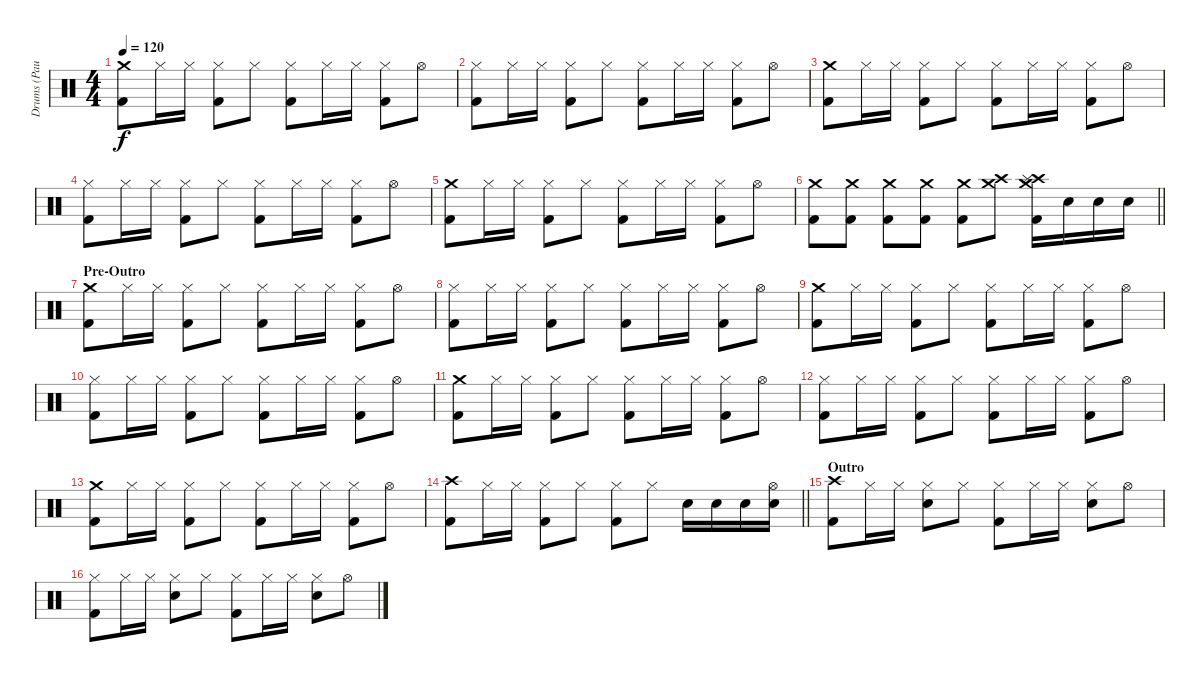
\track ("Drums (Paul Thompson)" "Drums (Pau") {instrument percussion}
\staff {score}
\articulation defaults
\ts (4 4)
\tempo 120
\clef neutral
\ks c
("Crash medium (hit)" "Kick (hit) 2").8{dy f} "Hi-Hat (closed)".16 "Hi-Hat (closed)".16 ("Hi-Hat (closed)" "Kick (hit) 2").8 "Hi-Hat (closed)".8 ("Hi-Hat (closed)" "Kick (hit) 2").8 "Hi-Hat (closed)".16 "Hi-Hat (closed)".16 ("Hi-Hat (closed)" "Kick (hit) 2").8 "Hi-Hat (open)".8 |
("Hi-Hat (closed)" "Kick (hit) 2").8 "Hi-Hat (closed)".16 "Hi-Hat (closed)".16 ("Hi-Hat (closed)" "Kick (hit) 2").8 "Hi-Hat (closed)".8 ("Hi-Hat (closed)" "Kick (hit) 2").8 "Hi-Hat (closed)".16 "Hi-Hat (closed)".16 ("Hi-Hat (closed)" "Kick (hit) 2").8 "Hi-Hat (open)".8 |
("Crash medium (hit)" "Kick (hit) 2").8 "Hi-Hat (closed)".16 "Hi-Hat (closed)".16 ("Hi-Hat (closed)" "Kick (hit) 2").8 "Hi-Hat (closed)".8 ("Hi-Hat (closed)" "Kick (hit) 2").8 "Hi-Hat (closed)".16 "Hi-Hat (closed)".16 ("Hi-Hat (closed)" "Kick (hit) 2").8 "Hi-Hat (open)".8 |
("Hi-Hat (closed)" "Kick (hit) 2").8 "Hi-Hat (closed)".16 "Hi-Hat (closed)".16 ("Hi-Hat (closed)" "Kick (hit) 2").8 "Hi-Hat (closed)".8 ("Hi-Hat (closed)" "Kick (hit) 2").8 "Hi-Hat (closed)".16 "Hi-Hat (closed)".16 ("Hi-Hat (closed)" "Kick (hit) 2").8 "Hi-Hat (open)".8 |
("Crash medium (hit)" "Kick (hit) 2").8 "Hi-Hat (closed)".16 "Hi-Hat (closed)".16 ("Hi-Hat (closed)" "Kick (hit) 2").8 "Hi-Hat (closed)".8 ("Hi-Hat (closed)" "Kick (hit) 2").8 "Hi-Hat (closed)".16 "Hi-Hat (closed)".16 ("Hi-Hat (closed)" "Kick (hit) 2").8 "Hi-Hat (open)".8 |
\barLineRight lightlight
("Crash medium (hit)" "Kick (hit) 2").8 ("Crash medium (hit)" "Kick (hit) 2").8 ("Crash medium (hit)" "Kick (hit) 2").8 ("Crash medium (hit)" "Kick (hit) 2").8 ("Crash medium (hit)" "Kick (hit) 2").8 ("Crash medium (hit)" "Crash high (hit)").8 ("Crash high (hit)" "Crash medium (hit)" "Splash (hit)" "Kick (hit) 2").16 "Snare (hit) 2".16 "Snare (hit) 2".16 "Snare (hit) 2".16 |
\section ("" "Pre-Outro")
("Crash medium (hit)" "Kick (hit) 2").8 "Hi-Hat (closed)".16 "Hi-Hat (closed)".16 ("Hi-Hat (closed)" "Kick (hit) 2").8 "Hi-Hat (closed)".8 ("Hi-Hat (closed)" "Kick (hit) 2").8 "Hi-Hat (closed)".16 "Hi-Hat (closed)".16 ("Hi-Hat (closed)" "Kick (hit) 2").8 "Hi-Hat (open)".8 |
("Hi-Hat (closed)" "Kick (hit) 2").8 "Hi-Hat (closed)".16 "Hi-Hat (closed)".16 ("Hi-Hat (closed)" "Kick (hit) 2").8 "Hi-Hat (closed)".8 ("Hi-Hat (closed)" "Kick (hit) 2").8 "Hi-Hat (closed)".16 "Hi-Hat (closed)".16 ("Hi-Hat (closed)" "Kick (hit) 2").8 "Hi-Hat (open)".8 |
("Crash medium (hit)" "Kick (hit) 2").8 "Hi-Hat (closed)".16 "Hi-Hat (closed)".16 ("Hi-Hat (closed)" "Kick (hit) 2").8 "Hi-Hat (closed)".8 ("Hi-Hat (closed)" "Kick (hit) 2").8 "Hi-Hat (closed)".16 "Hi-Hat (closed)".16 ("Hi-Hat (closed)" "Kick (hit) 2").8 "Hi-Hat (open)".8 |
("Hi-Hat (closed)" "Kick (hit) 2").8 "Hi-Hat (closed)".16 "Hi-Hat (closed)".16 ("Hi-Hat (closed)" "Kick (hit) 2").8 "Hi-Hat (closed)".8 ("Hi-Hat (closed)" "Kick (hit) 2").8 "Hi-Hat (closed)".16 "Hi-Hat (closed)".16 ("Hi-Hat (closed)" "Kick (hit) 2").8 "Hi-Hat (open)".8 |
("Crash medium (hit)" "Kick (hit) 2").8 "Hi-Hat (closed)".16 "Hi-Hat (closed)".16 ("Hi-Hat (closed)" "Kick (hit) 2").8 "Hi-Hat (closed)".8 ("Hi-Hat (closed)" "Kick (hit) 2").8 "Hi-Hat (closed)".16 "Hi-Hat (closed)".16 ("Hi-Hat (closed)" "Kick (hit) 2").8 "Hi-Hat (open)".8 |
("Hi-Hat (closed)" "Kick (hit) 2").8 "Hi-Hat (closed)".16 "Hi-Hat (closed)".16 ("Hi-Hat (closed)" "Kick (hit) 2").8 "Hi-Hat (closed)".8 ("Hi-Hat (closed)" "Kick (hit) 2").8 "Hi-Hat (closed)".16 "Hi-Hat (closed)".16 ("Hi-Hat (closed)" "Kick (hit) 2").8 "Hi-Hat (open)".8 |
("Crash medium (hit)" "Kick (hit) 2").8 "Hi-Hat (closed)".16 "Hi-Hat (closed)".16 ("Hi-Hat (closed)" "Kick (hit) 2").8 "Hi-Hat (closed)".8 ("Hi-Hat (closed)" "Kick (hit) 2").8 "Hi-Hat (closed)".16 "Hi-Hat (closed)".16 ("Hi-Hat (closed)" "Kick (hit) 2").8 "Hi-Hat (open)".8 |
\barLineRight lightlight
("Crash high (hit)" "Kick (hit) 2").8 "Hi-Hat (closed)".16 "Hi-Hat (closed)".16 ("Hi-Hat (closed)" "Kick (hit) 2").8 "Hi-Hat (closed)".8 ("Hi-Hat (closed)" "Kick (hit) 2").8 "Hi-Hat (closed)".8 "Snare (hit) 2".16 "Snare (hit) 2".16 "Snare (hit) 2".16 ("Hi-Hat (open)" "Snare (hit) 2").16 |
\section ("" "Outro")
("Crash high (hit)" "Kick (hit) 2").8 "Hi-Hat (closed)".16 "Hi-Hat (closed)".16 ("Hi-Hat (closed)" "Snare (hit) 2").8 "Hi-Hat (closed)".8 ("Hi-Hat (closed)" "Kick (hit) 2").8 "Hi-Hat (closed)".16 "Hi-Hat (closed)".16 ("Hi-Hat (closed)" "Snare (hit) 2").8 "Hi-Hat (open)".8 |
("Hi-Hat (closed)" "Kick (hit) 2").8 "Hi-Hat (closed)".16 "Hi-Hat (closed)".16 ("Hi-Hat (closed)" "Snare (hit) 2").8 "Hi-Hat (closed)".8 ("Hi-Hat (closed)" "Kick (hit) 2").8 "Hi-Hat (closed)".16 "Hi-Hat (closed)".16 ("Hi-Hat (closed)" "Snare (hit) 2").8 "Hi-Hat (open)".8
